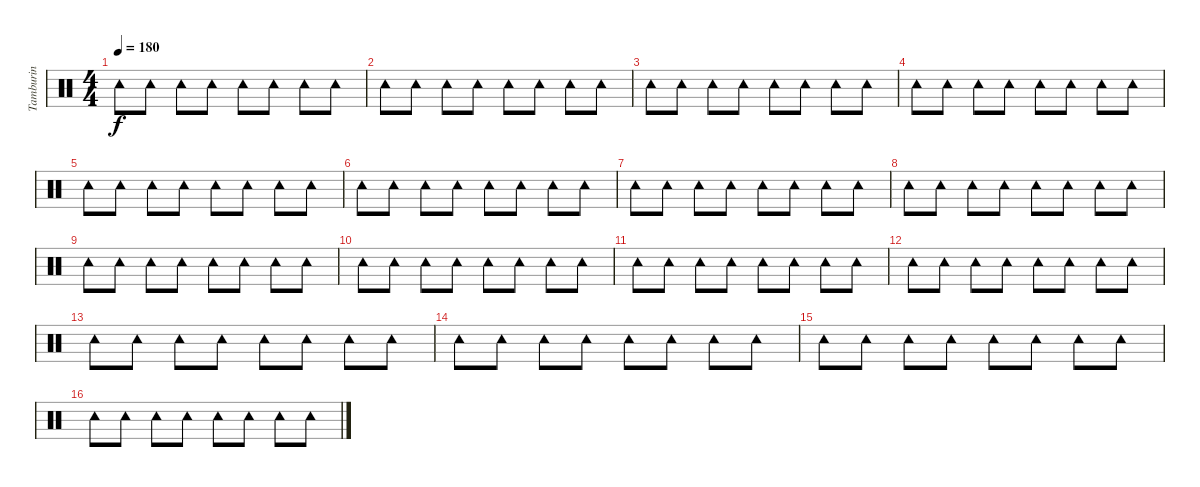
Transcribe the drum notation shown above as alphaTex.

\track ("Tamburin" "Tamburin") {instrument percussion}
\staff {score}
\articulation defaults
\ts (4 4)
\tempo 180
\clef neutral
\ks c "Tambourine (hit)".8{dy f} "Tambourine (hit)".8 "Tambourine (hit)".8 "Tambourine (hit)".8 "Tambourine (hit)".8 "Tambourine (hit)".8 "Tambourine (hit)".8 "Tambourine (hit)".8
|
"Tambourine (hit)".8 "Tambourine (hit)".8 "Tambourine (hit)".8 "Tambourine (hit)".8 "Tambourine (hit)".8 "Tambourine (hit)".8 "Tambourine (hit)".8 "Tambourine (hit)".8 |
"Tambourine (hit)".8 "Tambourine (hit)".8 "Tambourine (hit)".8 "Tambourine (hit)".8 "Tambourine (hit)".8 "Tambourine (hit)".8 "Tambourine (hit)".8 "Tambourine (hit)".8 |
"Tambourine (hit)".8 "Tambourine (hit)".8 "Tambourine (hit)".8 "Tambourine (hit)".8 "Tambourine (hit)".8 "Tambourine (hit)".8 "Tambourine (hit)".8 "Tambourine (hit)".8 |
"Tambourine (hit)".8 "Tambourine (hit)".8 "Tambourine (hit)".8 "Tambourine (hit)".8 "Tambourine (hit)".8 "Tambourine (hit)".8 "Tambourine (hit)".8 "Tambourine (hit)".8 |
"Tambourine (hit)".8 "Tambourine (hit)".8 "Tambourine (hit)".8 "Tambourine (hit)".8 "Tambourine (hit)".8 "Tambourine (hit)".8 "Tambourine (hit)".8 "Tambourine (hit)".8 |
"Tambourine (hit)".8 "Tambourine (hit)".8 "Tambourine (hit)".8 "Tambourine (hit)".8 "Tambourine (hit)".8 "Tambourine (hit)".8 "Tambourine (hit)".8 "Tambourine (hit)".8 |
"Tambourine (hit)".8 "Tambourine (hit)".8 "Tambourine (hit)".8 "Tambourine (hit)".8 "Tambourine (hit)".8 "Tambourine (hit)".8 "Tambourine (hit)".8 "Tambourine (hit)".8 |
"Tambourine (hit)".8 "Tambourine (hit)".8 "Tambourine (hit)".8 "Tambourine (hit)".8 "Tambourine (hit)".8 "Tambourine (hit)".8 "Tambourine (hit)".8 "Tambourine (hit)".8 |
"Tambourine (hit)".8 "Tambourine (hit)".8 "Tambourine (hit)".8 "Tambourine (hit)".8 "Tambourine (hit)".8 "Tambourine (hit)".8 "Tambourine (hit)".8 "Tambourine (hit)".8 |
"Tambourine (hit)".8 "Tambourine (hit)".8 "Tambourine (hit)".8 "Tambourine (hit)".8 "Tambourine (hit)".8 "Tambourine (hit)".8 "Tambourine (hit)".8 "Tambourine (hit)".8 |
"Tambourine (hit)".8 "Tambourine (hit)".8 "Tambourine (hit)".8 "Tambourine (hit)".8 "Tambourine (hit)".8 "Tambourine (hit)".8 "Tambourine (hit)".8 "Tambourine (hit)".8 |
"Tambourine (hit)".8 "Tambourine (hit)".8 "Tambourine (hit)".8 "Tambourine (hit)".8 "Tambourine (hit)".8 "Tambourine (hit)".8 "Tambourine (hit)".8 "Tambourine (hit)".8 |
"Tambourine (hit)".8 "Tambourine (hit)".8 "Tambourine (hit)".8 "Tambourine (hit)".8 "Tambourine (hit)".8 "Tambourine (hit)".8 "Tambourine (hit)".8 "Tambourine (hit)".8 |
"Tambourine (hit)".8 "Tambourine (hit)".8 "Tambourine (hit)".8 "Tambourine (hit)".8 "Tambourine (hit)".8 "Tambourine (hit)".8 "Tambourine (hit)".8 "Tambourine (hit)".8 |
"Tambourine (hit)".8 "Tambourine (hit)".8 "Tambourine (hit)".8 "Tambourine (hit)".8 "Tambourine (hit)".8 "Tambourine (hit)".8 "Tambourine (hit)".8 "Tambourine (hit)".8
